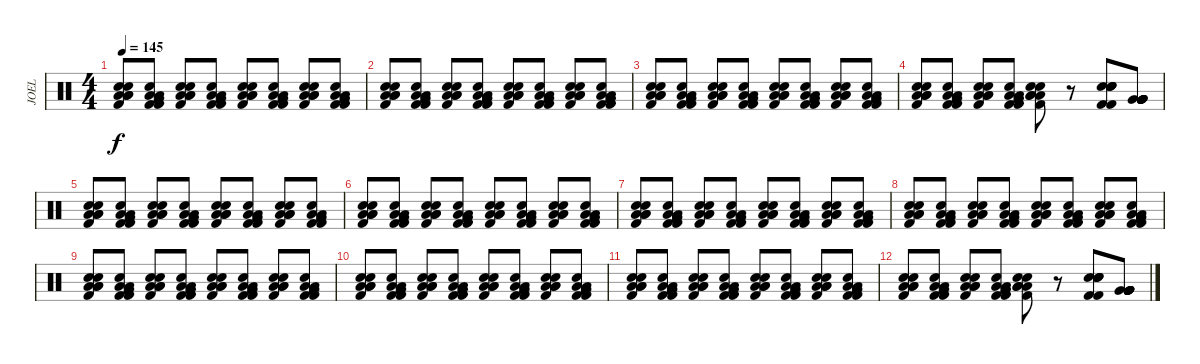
\track ("JOEL" "JOEL") {instrument percussion}
\staff {score}
\articulation defaults
\ts (4 4)
\tempo 145
\clef neutral
\ks c
("Low Floor Tom (hit)" "Kick (hit) 2" "Low Floor Tom (hit)" "Electric Snare (hit)" "Low Floor Tom (hit)" "Snare (hit) 2").8{dy f} ("Low Floor Tom (hit)" "Kick (hit) 2" "Low Floor Tom (hit)" "Electric Snare (hit)" "Very Low Tom (hit)" "Kick (hit) 2").8 ("Low Floor Tom (hit)" "Kick (hit) 2" "Low Floor Tom (hit)" "Electric Snare (hit)" "Low Floor Tom (hit)" "Snare (hit) 2").8 ("Low Floor Tom (hit)" "Kick (hit) 2" "Low Floor Tom (hit)" "Electric Snare (hit)" "Very Low Tom (hit)" "Kick (hit) 2").8 ("Low Floor Tom (hit)" "Kick (hit) 2" "Low Floor Tom (hit)" "Electric Snare (hit)" "Low Floor Tom (hit)" "Snare (hit) 2").8 ("Low Floor Tom (hit)" "Kick (hit) 2" "Low Floor Tom (hit)" "Electric Snare (hit)" "Very Low Tom (hit)" "Kick (hit) 2").8 ("Low Floor Tom (hit)" "Kick (hit) 2" "Low Floor Tom (hit)" "Electric Snare (hit)" "Low Floor Tom (hit)" "Snare (hit) 2").8 ("Low Floor Tom (hit)" "Kick (hit) 2" "Low Floor Tom (hit)" "Electric Snare (hit)" "Very Low Tom (hit)" "Kick (hit) 2").8 |
("Low Floor Tom (hit)" "Kick (hit) 2" "Low Floor Tom (hit)" "Electric Snare (hit)" "Low Floor Tom (hit)" "Snare (hit) 2").8 ("Low Floor Tom (hit)" "Kick (hit) 2" "Low Floor Tom (hit)" "Electric Snare (hit)" "Very Low Tom (hit)" "Kick (hit) 2").8 ("Low Floor Tom (hit)" "Kick (hit) 2" "Low Floor Tom (hit)" "Electric Snare (hit)" "Low Floor Tom (hit)" "Snare (hit) 2").8 ("Low Floor Tom (hit)" "Kick (hit) 2" "Low Floor Tom (hit)" "Electric Snare (hit)" "Very Low Tom (hit)" "Kick (hit) 2").8 ("Low Floor Tom (hit)" "Kick (hit) 2" "Low Floor Tom (hit)" "Electric Snare (hit)" "Low Floor Tom (hit)" "Snare (hit) 2").8 ("Low Floor Tom (hit)" "Kick (hit) 2" "Low Floor Tom (hit)" "Electric Snare (hit)" "Very Low Tom (hit)" "Kick (hit) 2").8 ("Low Floor Tom (hit)" "Kick (hit) 2" "Low Floor Tom (hit)" "Electric Snare (hit)" "Low Floor Tom (hit)" "Snare (hit) 2").8 ("Low Floor Tom (hit)" "Kick (hit) 2" "Low Floor Tom (hit)" "Electric Snare (hit)" "Very Low Tom (hit)" "Kick (hit) 2").8 |
("Low Floor Tom (hit)" "Kick (hit) 2" "Low Floor Tom (hit)" "Electric Snare (hit)" "Low Floor Tom (hit)" "Snare (hit) 2").8 ("Low Floor Tom (hit)" "Kick (hit) 2" "Low Floor Tom (hit)" "Electric Snare (hit)" "Very Low Tom (hit)" "Kick (hit) 2").8 ("Low Floor Tom (hit)" "Kick (hit) 2" "Low Floor Tom (hit)" "Electric Snare (hit)" "Low Floor Tom (hit)" "Snare (hit) 2").8 ("Low Floor Tom (hit)" "Kick (hit) 2" "Low Floor Tom (hit)" "Electric Snare (hit)" "Very Low Tom (hit)" "Kick (hit) 2").8 ("Low Floor Tom (hit)" "Kick (hit) 2" "Low Floor Tom (hit)" "Electric Snare (hit)" "Low Floor Tom (hit)" "Snare (hit) 2").8 ("Low Floor Tom (hit)" "Kick (hit) 2" "Low Floor Tom (hit)" "Electric Snare (hit)" "Very Low Tom (hit)" "Kick (hit) 2").8 ("Low Floor Tom (hit)" "Kick (hit) 2" "Low Floor Tom (hit)" "Electric Snare (hit)" "Low Floor Tom (hit)" "Snare (hit) 2").8 ("Low Floor Tom (hit)" "Kick (hit) 2" "Low Floor Tom (hit)" "Electric Snare (hit)" "Very Low Tom (hit)" "Kick (hit) 2").8 |
("Low Floor Tom (hit)" "Kick (hit) 2" "Low Floor Tom (hit)" "Electric Snare (hit)" "Low Floor Tom (hit)" "Snare (hit) 2").8 ("Low Floor Tom (hit)" "Kick (hit) 2" "Low Floor Tom (hit)" "Electric Snare (hit)" "Very Low Tom (hit)" "Kick (hit) 2").8 ("Low Floor Tom (hit)" "Kick (hit) 2" "Low Floor Tom (hit)" "Electric Snare (hit)" "Low Floor Tom (hit)" "Snare (hit) 2").8 ("Low Floor Tom (hit)" "Kick (hit) 2" "Low Floor Tom (hit)" "Electric Snare (hit)" "Very Low Tom (hit)" "Kick (hit) 2").8 ("Low Floor Tom (hit)" "Kick (hit) 2" "Low Floor Tom (hit)" "Electric Snare (hit)" "Low Floor Tom (hit)" "Snare (hit) 2").8 r.8 ("Kick (hit) 2" "Kick (hit) 2" "Electric Snare (hit)" "Electric Snare (hit)" "Electric Snare (hit)" "Electric Snare (hit)").8 ("Very Low Tom (hit)" "Very Low Tom (hit)" "Very Low Tom (hit)" "Very Low Tom (hit)" "Very Low Tom (hit)" "Very Low Tom (hit)").8 |
("Low Floor Tom (hit)" "Kick (hit) 2" "Low Floor Tom (hit)" "Electric Snare (hit)" "Low Floor Tom (hit)" "Snare (hit) 2").8 ("Low Floor Tom (hit)" "Kick (hit) 2" "Low Floor Tom (hit)" "Electric Snare (hit)" "Very Low Tom (hit)" "Kick (hit) 2").8 ("Low Floor Tom (hit)" "Kick (hit) 2" "Low Floor Tom (hit)" "Electric Snare (hit)" "Low Floor Tom (hit)" "Snare (hit) 2").8 ("Low Floor Tom (hit)" "Kick (hit) 2" "Low Floor Tom (hit)" "Electric Snare (hit)" "Very Low Tom (hit)" "Kick (hit) 2").8 ("Low Floor Tom (hit)" "Kick (hit) 2" "Low Floor Tom (hit)" "Electric Snare (hit)" "Low Floor Tom (hit)" "Snare (hit) 2").8 ("Low Floor Tom (hit)" "Kick (hit) 2" "Low Floor Tom (hit)" "Electric Snare (hit)" "Very Low Tom (hit)" "Kick (hit) 2").8 ("Low Floor Tom (hit)" "Kick (hit) 2" "Low Floor Tom (hit)" "Electric Snare (hit)" "Low Floor Tom (hit)" "Snare (hit) 2").8 ("Low Floor Tom (hit)" "Kick (hit) 2" "Low Floor Tom (hit)" "Electric Snare (hit)" "Very Low Tom (hit)" "Kick (hit) 2").8 |
("Low Floor Tom (hit)" "Kick (hit) 2" "Low Floor Tom (hit)" "Electric Snare (hit)" "Low Floor Tom (hit)" "Snare (hit) 2").8 ("Low Floor Tom (hit)" "Kick (hit) 2" "Low Floor Tom (hit)" "Electric Snare (hit)" "Very Low Tom (hit)" "Kick (hit) 2").8 ("Low Floor Tom (hit)" "Kick (hit) 2" "Low Floor Tom (hit)" "Electric Snare (hit)" "Low Floor Tom (hit)" "Snare (hit) 2").8 ("Low Floor Tom (hit)" "Kick (hit) 2" "Low Floor Tom (hit)" "Electric Snare (hit)" "Very Low Tom (hit)" "Kick (hit) 2").8 ("Low Floor Tom (hit)" "Kick (hit) 2" "Low Floor Tom (hit)" "Electric Snare (hit)" "Low Floor Tom (hit)" "Snare (hit) 2").8 ("Low Floor Tom (hit)" "Kick (hit) 2" "Low Floor Tom (hit)" "Electric Snare (hit)" "Very Low Tom (hit)" "Kick (hit) 2").8 ("Low Floor Tom (hit)" "Kick (hit) 2" "Low Floor Tom (hit)" "Electric Snare (hit)" "Low Floor Tom (hit)" "Snare (hit) 2").8 ("Low Floor Tom (hit)" "Kick (hit) 2" "Low Floor Tom (hit)" "Electric Snare (hit)" "Very Low Tom (hit)" "Kick (hit) 2").8 |
("Low Floor Tom (hit)" "Kick (hit) 2" "Low Floor Tom (hit)" "Electric Snare (hit)" "Low Floor Tom (hit)" "Snare (hit) 2").8 ("Low Floor Tom (hit)" "Kick (hit) 2" "Low Floor Tom (hit)" "Electric Snare (hit)" "Very Low Tom (hit)" "Kick (hit) 2").8 ("Low Floor Tom (hit)" "Kick (hit) 2" "Low Floor Tom (hit)" "Electric Snare (hit)" "Low Floor Tom (hit)" "Snare (hit) 2").8 ("Low Floor Tom (hit)" "Kick (hit) 2" "Low Floor Tom (hit)" "Electric Snare (hit)" "Very Low Tom (hit)" "Kick (hit) 2").8 ("Low Floor Tom (hit)" "Kick (hit) 2" "Low Floor Tom (hit)" "Electric Snare (hit)" "Low Floor Tom (hit)" "Snare (hit) 2").8 ("Low Floor Tom (hit)" "Kick (hit) 2" "Low Floor Tom (hit)" "Electric Snare (hit)" "Very Low Tom (hit)" "Kick (hit) 2").8 ("Low Floor Tom (hit)" "Kick (hit) 2" "Low Floor Tom (hit)" "Electric Snare (hit)" "Low Floor Tom (hit)" "Snare (hit) 2").8 ("Low Floor Tom (hit)" "Kick (hit) 2" "Low Floor Tom (hit)" "Electric Snare (hit)" "Very Low Tom (hit)" "Kick (hit) 2").8 |
("Low Floor Tom (hit)" "Kick (hit) 2" "Low Floor Tom (hit)" "Electric Snare (hit)" "Low Floor Tom (hit)" "Snare (hit) 2").8 ("Low Floor Tom (hit)" "Kick (hit) 2" "Low Floor Tom (hit)" "Electric Snare (hit)" "Very Low Tom (hit)" "Kick (hit) 2").8 ("Low Floor Tom (hit)" "Kick (hit) 2" "Low Floor Tom (hit)" "Electric Snare (hit)" "Low Floor Tom (hit)" "Snare (hit) 2").8 ("Low Floor Tom (hit)" "Kick (hit) 2" "Low Floor Tom (hit)" "Electric Snare (hit)" "Very Low Tom (hit)" "Kick (hit) 2").8 ("Low Floor Tom (hit)" "Kick (hit) 2" "Low Floor Tom (hit)" "Electric Snare (hit)" "Low Floor Tom (hit)" "Snare (hit) 2").8 ("Low Floor Tom (hit)" "Kick (hit) 2" "Low Floor Tom (hit)" "Electric Snare (hit)" "Very Low Tom (hit)" "Kick (hit) 2").8 ("Low Floor Tom (hit)" "Kick (hit) 2" "Low Floor Tom (hit)" "Electric Snare (hit)" "Low Floor Tom (hit)" "Snare (hit) 2").8 ("Low Floor Tom (hit)" "Kick (hit) 2" "Low Floor Tom (hit)" "Electric Snare (hit)" "Very Low Tom (hit)" "Kick (hit) 2").8 |
("Low Floor Tom (hit)" "Kick (hit) 2" "Low Floor Tom (hit)" "Electric Snare (hit)" "Low Floor Tom (hit)" "Snare (hit) 2").8 ("Low Floor Tom (hit)" "Kick (hit) 2" "Low Floor Tom (hit)" "Electric Snare (hit)" "Very Low Tom (hit)" "Kick (hit) 2").8 ("Low Floor Tom (hit)" "Kick (hit) 2" "Low Floor Tom (hit)" "Electric Snare (hit)" "Low Floor Tom (hit)" "Snare (hit) 2").8 ("Low Floor Tom (hit)" "Kick (hit) 2" "Low Floor Tom (hit)" "Electric Snare (hit)" "Very Low Tom (hit)" "Kick (hit) 2").8 ("Low Floor Tom (hit)" "Kick (hit) 2" "Low Floor Tom (hit)" "Electric Snare (hit)" "Low Floor Tom (hit)" "Snare (hit) 2").8 ("Low Floor Tom (hit)" "Kick (hit) 2" "Low Floor Tom (hit)" "Electric Snare (hit)" "Very Low Tom (hit)" "Kick (hit) 2").8 ("Low Floor Tom (hit)" "Kick (hit) 2" "Low Floor Tom (hit)" "Electric Snare (hit)" "Low Floor Tom (hit)" "Snare (hit) 2").8 ("Low Floor Tom (hit)" "Kick (hit) 2" "Low Floor Tom (hit)" "Electric Snare (hit)" "Very Low Tom (hit)" "Kick (hit) 2").8 |
("Low Floor Tom (hit)" "Kick (hit) 2" "Low Floor Tom (hit)" "Electric Snare (hit)" "Low Floor Tom (hit)" "Snare (hit) 2").8 ("Low Floor Tom (hit)" "Kick (hit) 2" "Low Floor Tom (hit)" "Electric Snare (hit)" "Very Low Tom (hit)" "Kick (hit) 2").8 ("Low Floor Tom (hit)" "Kick (hit) 2" "Low Floor Tom (hit)" "Electric Snare (hit)" "Low Floor Tom (hit)" "Snare (hit) 2").8 ("Low Floor Tom (hit)" "Kick (hit) 2" "Low Floor Tom (hit)" "Electric Snare (hit)" "Very Low Tom (hit)" "Kick (hit) 2").8 ("Low Floor Tom (hit)" "Kick (hit) 2" "Low Floor Tom (hit)" "Electric Snare (hit)" "Low Floor Tom (hit)" "Snare (hit) 2").8 ("Low Floor Tom (hit)" "Kick (hit) 2" "Low Floor Tom (hit)" "Electric Snare (hit)" "Very Low Tom (hit)" "Kick (hit) 2").8 ("Low Floor Tom (hit)" "Kick (hit) 2" "Low Floor Tom (hit)" "Electric Snare (hit)" "Low Floor Tom (hit)" "Snare (hit) 2").8 ("Low Floor Tom (hit)" "Kick (hit) 2" "Low Floor Tom (hit)" "Electric Snare (hit)" "Very Low Tom (hit)" "Kick (hit) 2").8 |
("Low Floor Tom (hit)" "Kick (hit) 2" "Low Floor Tom (hit)" "Electric Snare (hit)" "Low Floor Tom (hit)" "Snare (hit) 2").8 ("Low Floor Tom (hit)" "Kick (hit) 2" "Low Floor Tom (hit)" "Electric Snare (hit)" "Very Low Tom (hit)" "Kick (hit) 2").8 ("Low Floor Tom (hit)" "Kick (hit) 2" "Low Floor Tom (hit)" "Electric Snare (hit)" "Low Floor Tom (hit)" "Snare (hit) 2").8 ("Low Floor Tom (hit)" "Kick (hit) 2" "Low Floor Tom (hit)" "Electric Snare (hit)" "Very Low Tom (hit)" "Kick (hit) 2").8 ("Low Floor Tom (hit)" "Kick (hit) 2" "Low Floor Tom (hit)" "Electric Snare (hit)" "Low Floor Tom (hit)" "Snare (hit) 2").8 ("Low Floor Tom (hit)" "Kick (hit) 2" "Low Floor Tom (hit)" "Electric Snare (hit)" "Very Low Tom (hit)" "Kick (hit) 2").8 ("Low Floor Tom (hit)" "Kick (hit) 2" "Low Floor Tom (hit)" "Electric Snare (hit)" "Low Floor Tom (hit)" "Snare (hit) 2").8 ("Low Floor Tom (hit)" "Kick (hit) 2" "Low Floor Tom (hit)" "Electric Snare (hit)" "Very Low Tom (hit)" "Kick (hit) 2").8 |
("Low Floor Tom (hit)" "Kick (hit) 2" "Low Floor Tom (hit)" "Electric Snare (hit)" "Low Floor Tom (hit)" "Snare (hit) 2").8 ("Low Floor Tom (hit)" "Kick (hit) 2" "Low Floor Tom (hit)" "Electric Snare (hit)" "Very Low Tom (hit)" "Kick (hit) 2").8 ("Low Floor Tom (hit)" "Kick (hit) 2" "Low Floor Tom (hit)" "Electric Snare (hit)" "Low Floor Tom (hit)" "Snare (hit) 2").8 ("Low Floor Tom (hit)" "Kick (hit) 2" "Low Floor Tom (hit)" "Electric Snare (hit)" "Very Low Tom (hit)" "Kick (hit) 2").8 ("Low Floor Tom (hit)" "Kick (hit) 2" "Low Floor Tom (hit)" "Electric Snare (hit)" "Low Floor Tom (hit)" "Snare (hit) 2").8 r.8 ("Kick (hit) 2" "Kick (hit) 2" "Electric Snare (hit)" "Electric Snare (hit)" "Electric Snare (hit)" "Electric Snare (hit)").8 ("Very Low Tom (hit)" "Very Low Tom (hit)" "Very Low Tom (hit)" "Very Low Tom (hit)" "Very Low Tom (hit)" "Very Low Tom (hit)").8
